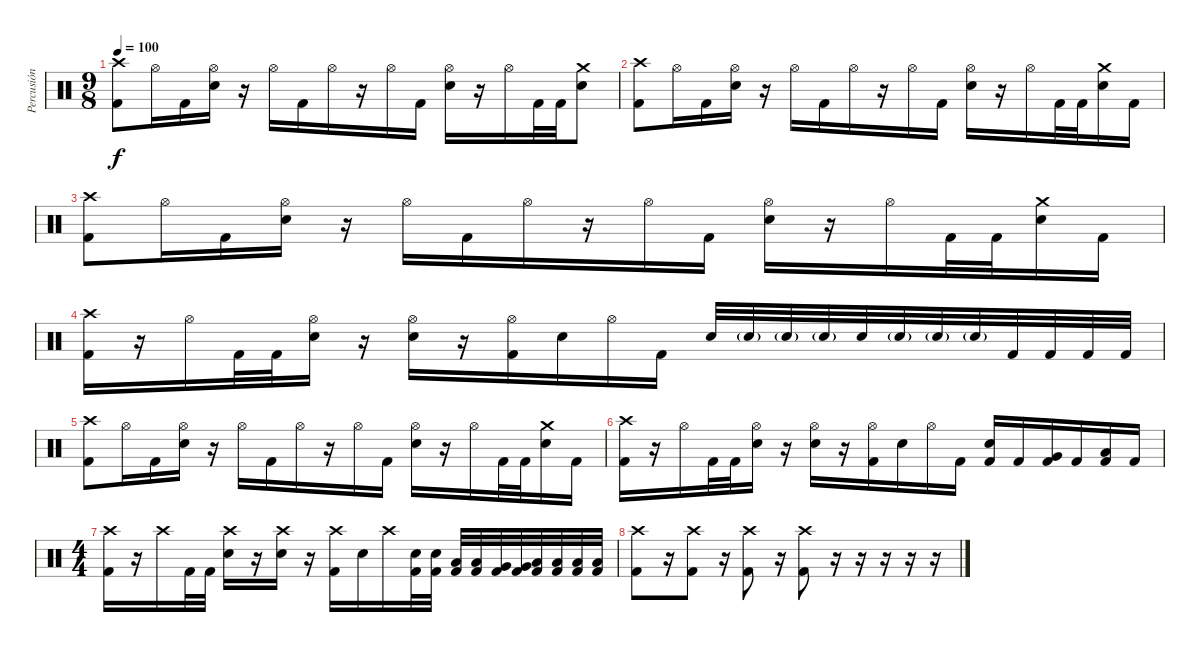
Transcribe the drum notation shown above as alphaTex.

\track ("Percusión" "Percusión") {instrument percussion}
\staff {score}
\articulation defaults
\ts (9 8)
\tempo 100
\clef neutral
\ks c
("Crash high (hit)" "Kick (hit) 2").8{dy f} "Hi-Hat (open)".16 "Kick (hit) 2".16 ("Hi-Hat (open)" "Electric Snare (hit)").16 r.16 "Hi-Hat (open)".16 "Kick (hit) 2".16 "Hi-Hat (open)".16 r.16 "Hi-Hat (open)".16 "Kick (hit) 2".16 ("Hi-Hat (open)" "Electric Snare (hit)").16 r.16 "Hi-Hat (open)".16 "Kick (hit) 2".32 "Kick (hit) 2".32 ("Crash medium (hit)" "Electric Snare (hit)").8 |
("Crash high (hit)" "Kick (hit) 2").8 "Hi-Hat (open)".16 "Kick (hit) 2".16 ("Hi-Hat (open)" "Electric Snare (hit)").16 r.16 "Hi-Hat (open)".16 "Kick (hit) 2".16 "Hi-Hat (open)".16 r.16 "Hi-Hat (open)".16 "Kick (hit) 2".16 ("Hi-Hat (open)" "Electric Snare (hit)").16 r.16 "Hi-Hat (open)".16 "Kick (hit) 2".32 "Kick (hit) 2".32 ("Crash medium (hit)" "Electric Snare (hit)").16 "Kick (hit) 2".16 |
("Crash high (hit)" "Kick (hit) 2").8 "Hi-Hat (open)".16 "Kick (hit) 2".16 ("Hi-Hat (open)" "Electric Snare (hit)").16 r.16 "Hi-Hat (open)".16 "Kick (hit) 2".16 "Hi-Hat (open)".16 r.16 "Hi-Hat (open)".16 "Kick (hit) 2".16 ("Hi-Hat (open)" "Electric Snare (hit)").16 r.16 "Hi-Hat (open)".16 "Kick (hit) 2".32 "Kick (hit) 2".32 ("Crash medium (hit)" "Electric Snare (hit)").16 "Kick (hit) 2".16 |
("Crash high (hit)" "Kick (hit) 2").16 r.16 "Hi-Hat (open)".16 "Kick (hit) 2".32 "Kick (hit) 2".32 ("Hi-Hat (open)" "Electric Snare (hit)").16 r.16 ("Hi-Hat (open)" "Electric Snare (hit)").16 r.16 ("Hi-Hat (open)" "Kick (hit) 2").16 "Electric Snare (hit)".16 "Hi-Hat (open)".16 "Kick (hit) 2".16 "Electric Snare (hit)".32 "Electric Snare (hit)"{g}.32 "Electric Snare (hit)"{g}.32 "Electric Snare (hit)"{g}.32 "Electric Snare (hit)".32 "Electric Snare (hit)"{g}.32 "Electric Snare (hit)"{g}.32 "Electric Snare (hit)"{g}.32 "Kick (hit) 2".32 "Kick (hit) 2".32 "Kick (hit) 2".32 "Kick (hit) 2".32 |
("Crash high (hit)" "Kick (hit) 2").8 "Hi-Hat (open)".16 "Kick (hit) 2".16 ("Hi-Hat (open)" "Electric Snare (hit)").16 r.16 "Hi-Hat (open)".16 "Kick (hit) 2".16 "Hi-Hat (open)".16 r.16 "Hi-Hat (open)".16 "Kick (hit) 2".16 ("Hi-Hat (open)" "Electric Snare (hit)").16 r.16 "Hi-Hat (open)".16 "Kick (hit) 2".32 "Kick (hit) 2".32 ("Crash medium (hit)" "Electric Snare (hit)").16 "Kick (hit) 2".16 |
("Crash high (hit)" "Kick (hit) 2").16 r.16 "Hi-Hat (open)".16 "Kick (hit) 2".32 "Kick (hit) 2".32 ("Hi-Hat (open)" "Electric Snare (hit)").16 r.16 ("Hi-Hat (open)" "Electric Snare (hit)").16 r.16 ("Hi-Hat (open)" "Kick (hit) 2").16 "Electric Snare (hit)".16 "Hi-Hat (open)".16 "Kick (hit) 2".16 ("Electric Snare (hit)" "Kick (hit) 2").16 "Kick (hit) 2".16 ("Very Low Tom (hit)" "Kick (hit) 2").16 "Kick (hit) 2".16 ("Low Floor Tom (hit)" "Kick (hit) 2").16 "Kick (hit) 2".16 |
\ts (4 4)
("Crash high (hit)" "Kick (hit) 2").16 r.16 "Crash high (hit)".16 "Kick (hit) 2".32 "Kick (hit) 2".32 ("Crash high (hit)" "Electric Snare (hit)").16 r.16 ("Crash high (hit)" "Electric Snare (hit)").16 r.16 ("Crash high (hit)" "Kick (hit) 2").16 "Electric Snare (hit)".16 "Crash high (hit)".16 ("Electric Snare (hit)" "Kick (hit) 2").32 ("Electric Snare (hit)" "Kick (hit) 2").32 ("Low Floor Tom (hit)" "Kick (hit) 2").32 ("Low Floor Tom (hit)" "Kick (hit) 2").32 ("Very Low Tom (hit)" "Kick (hit) 2").32 ("Very Low Tom (hit)" "Kick (hit) 2").32 ("Low Floor Tom (hit)" "Kick (hit) 2").32 ("Low Floor Tom (hit)" "Kick (hit) 2").32 ("Low Tom (hit)" "Kick (hit) 2").32 ("Low Tom (hit)" "Kick (hit) 2").32 |
("Crash high (hit)" "Kick (hit) 2").8 r.16 ("Crash high (hit)" "Kick (hit) 2").8 r.16 ("Crash high (hit)" "Kick (hit) 2").8 r.16 ("Crash high (hit)" "Kick (hit) 2").8 r.16 r.16 r.16 r.16 r.16
